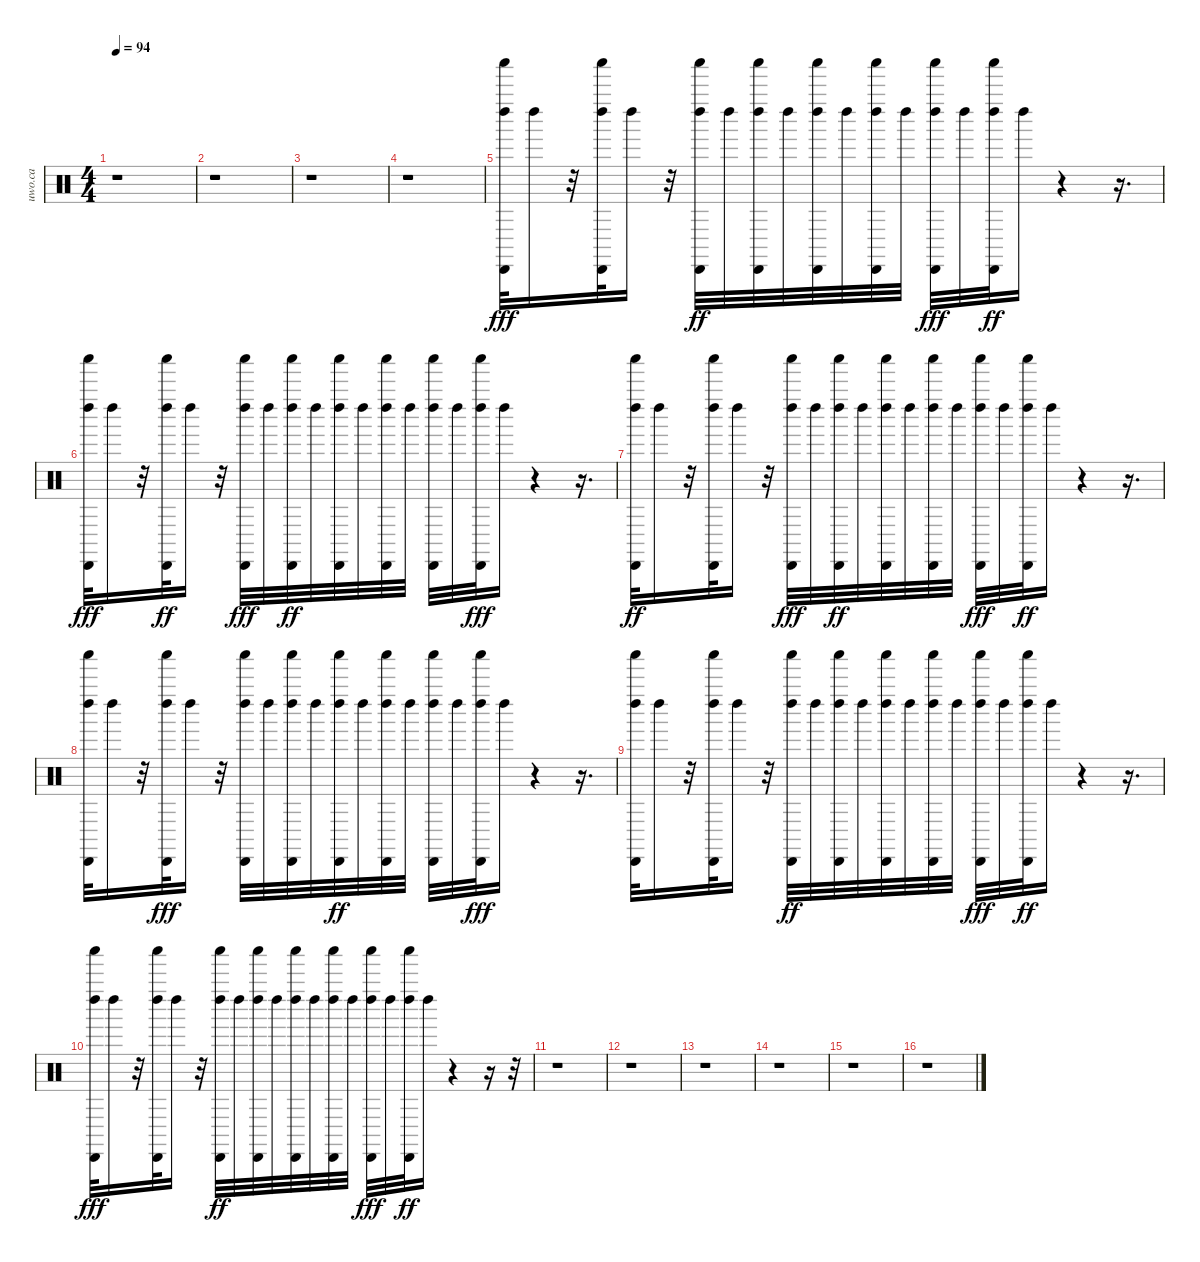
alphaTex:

\track ("uwo.ca" "uwo.ca") {instrument percussion}
\staff {score}
\articulation defaults
\ts (4 4)
\tempo 94
\clef neutral
\ks c
r.1{dy ff} |
r.1 |
r.1 |
r.1 |
("Shaker (hit)" "Cabasa (hit)" "Left Maraca (hit)").32{dy fff} "Left Maraca (hit)".16 r.32 ("Shaker (hit)" "Cabasa (hit)" "Left Maraca (hit)").32 "Left Maraca (hit)".16 r.32 ("Shaker (hit)" "Cabasa (hit)" "Left Maraca (hit)").32{dy ff} "Left Maraca (hit)".32 ("Cabasa (hit)" "Shaker (hit)" "Left Maraca (hit)").32 "Left Maraca (hit)".32 ("Cabasa (hit)" "Shaker (hit)" "Left Maraca (hit)").32 "Left Maraca (hit)".32 ("Cabasa (hit)" "Shaker (hit)" "Left Maraca (hit)").32 "Left Maraca (hit)".32 ("Cabasa (hit)" "Shaker (hit)" "Left Maraca (hit)").32{dy fff} "Left Maraca (hit)".32 ("Shaker (hit)" "Cabasa (hit)" "Left Maraca (hit)").32{dy ff} "Left Maraca (hit)".16 r.4 r.16{d} |
("Shaker (hit)" "Cabasa (hit)" "Left Maraca (hit)").32{dy fff} "Left Maraca (hit)".16 r.32 ("Shaker (hit)" "Cabasa (hit)" "Left Maraca (hit)").32{dy ff} "Left Maraca (hit)".16 r.32 ("Shaker (hit)" "Cabasa (hit)" "Left Maraca (hit)").32{dy fff} "Left Maraca (hit)".32 ("Shaker (hit)" "Cabasa (hit)" "Left Maraca (hit)").32{dy ff} "Left Maraca (hit)".32 ("Cabasa (hit)" "Shaker (hit)" "Left Maraca (hit)").32 "Left Maraca (hit)".32 ("Cabasa (hit)" "Shaker (hit)" "Left Maraca (hit)").32 "Left Maraca (hit)".32 ("Cabasa (hit)" "Shaker (hit)" "Left Maraca (hit)").32 "Left Maraca (hit)".32 ("Cabasa (hit)" "Shaker (hit)" "Left Maraca (hit)").32{dy fff} "Left Maraca (hit)".16 r.4 r.16{d} |
("Shaker (hit)" "Cabasa (hit)" "Left Maraca (hit)").32{dy ff} "Left Maraca (hit)".16 r.32 ("Shaker (hit)" "Cabasa (hit)" "Left Maraca (hit)").32 "Left Maraca (hit)".16 r.32 ("Shaker (hit)" "Cabasa (hit)" "Left Maraca (hit)").32{dy fff} "Left Maraca (hit)".32 ("Shaker (hit)" "Cabasa (hit)" "Left Maraca (hit)").32{dy ff} "Left Maraca (hit)".32 ("Cabasa (hit)" "Shaker (hit)" "Left Maraca (hit)").32 "Left Maraca (hit)".32 ("Cabasa (hit)" "Shaker (hit)" "Left Maraca (hit)").32 "Left Maraca (hit)".32 ("Cabasa (hit)" "Shaker (hit)" "Left Maraca (hit)").32{dy fff} "Left Maraca (hit)".32 ("Cabasa (hit)" "Shaker (hit)" "Left Maraca (hit)").32{dy ff} "Left Maraca (hit)".16 r.4 r.16{d} |
("Shaker (hit)" "Cabasa (hit)" "Left Maraca (hit)").32 "Left Maraca (hit)".16 r.32 ("Shaker (hit)" "Cabasa (hit)" "Left Maraca (hit)").32{dy fff} "Left Maraca (hit)".16 r.32 ("Shaker (hit)" "Cabasa (hit)" "Left Maraca (hit)").32 "Left Maraca (hit)".32 ("Shaker (hit)" "Cabasa (hit)" "Left Maraca (hit)").32 "Left Maraca (hit)".32 ("Cabasa (hit)" "Shaker (hit)" "Left Maraca (hit)").32{dy ff} "Left Maraca (hit)".32 ("Cabasa (hit)" "Shaker (hit)" "Left Maraca (hit)").32 "Left Maraca (hit)".32 ("Cabasa (hit)" "Shaker (hit)" "Left Maraca (hit)").32 "Left Maraca (hit)".32 ("Cabasa (hit)" "Shaker (hit)" "Left Maraca (hit)").32{dy fff} "Left Maraca (hit)".16 r.4 r.16{d} |
("Shaker (hit)" "Cabasa (hit)" "Left Maraca (hit)").32 "Left Maraca (hit)".16 r.32 ("Shaker (hit)" "Cabasa (hit)" "Left Maraca (hit)").32 "Left Maraca (hit)".16 r.32 ("Shaker (hit)" "Cabasa (hit)" "Left Maraca (hit)").32{dy ff} "Left Maraca (hit)".32 ("Cabasa (hit)" "Shaker (hit)" "Left Maraca (hit)").32 "Left Maraca (hit)".32 ("Cabasa (hit)" "Shaker (hit)" "Left Maraca (hit)").32 "Left Maraca (hit)".32 ("Cabasa (hit)" "Shaker (hit)" "Left Maraca (hit)").32 "Left Maraca (hit)".32 ("Cabasa (hit)" "Shaker (hit)" "Left Maraca (hit)").32{dy fff} "Left Maraca (hit)".32 ("Shaker (hit)" "Cabasa (hit)" "Left Maraca (hit)").32{dy ff} "Left Maraca (hit)".16 r.4 r.16{d} |
("Shaker (hit)" "Cabasa (hit)" "Left Maraca (hit)").32{dy fff} "Left Maraca (hit)".16 r.32 ("Shaker (hit)" "Cabasa (hit)" "Left Maraca (hit)").32 "Left Maraca (hit)".16 r.32 ("Shaker (hit)" "Cabasa (hit)" "Left Maraca (hit)").32{dy ff} "Left Maraca (hit)".32 ("Cabasa (hit)" "Shaker (hit)" "Left Maraca (hit)").32 "Left Maraca (hit)".32 ("Cabasa (hit)" "Shaker (hit)" "Left Maraca (hit)").32 "Left Maraca (hit)".32 ("Cabasa (hit)" "Shaker (hit)" "Left Maraca (hit)").32 "Left Maraca (hit)".32 ("Cabasa (hit)" "Shaker (hit)" "Left Maraca (hit)").32{dy fff} "Left Maraca (hit)".32 ("Shaker (hit)" "Cabasa (hit)" "Left Maraca (hit)").32{dy ff} "Left Maraca (hit)".16 r.4 r.16 r.32 |
r.1 |
r.1 |
r.1 |
r.1 |
r.1 |
r.1
